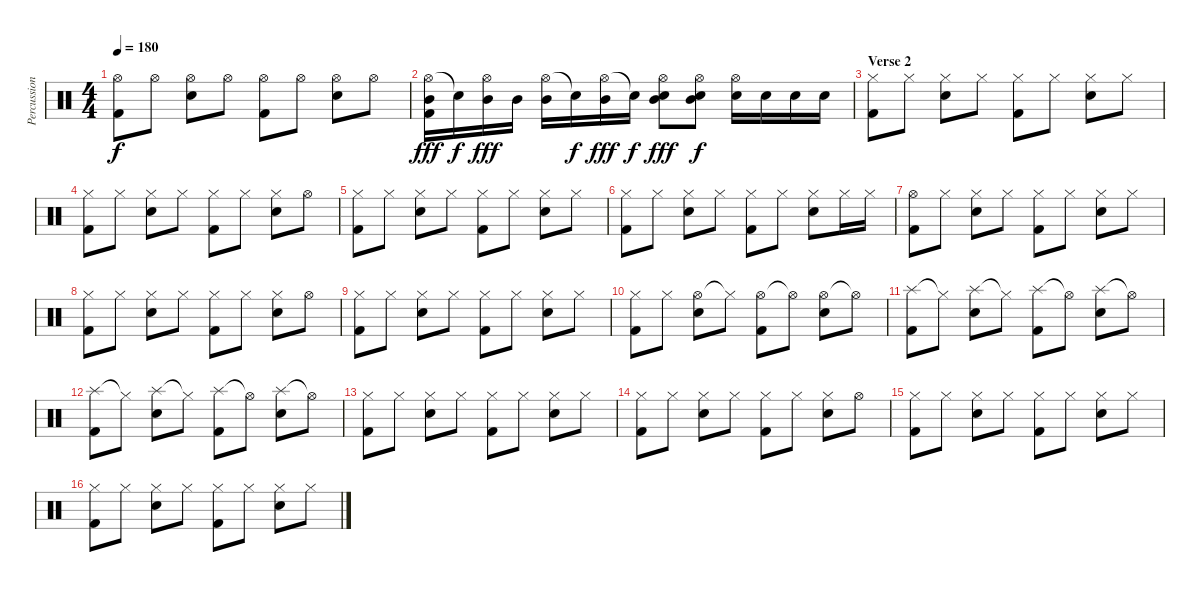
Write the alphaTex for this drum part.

\track ("Percussion" "Percussion") {instrument percussion}
\staff {score}
\articulation defaults
\ts (4 4)
\tempo 180
\clef neutral
\ks c
("Hi-Hat (open)" "Kick (hit) 2").8{dy f} "Hi-Hat (open)".8 ("Hi-Hat (open)" "Electric Snare (hit)").8 "Hi-Hat (open)".8 ("Hi-Hat (open)" "Kick (hit) 2").8 "Hi-Hat (open)".8 ("Hi-Hat (open)" "Electric Snare (hit)").8 "Hi-Hat (open)".8 |
("Hi-Hat (open)" "Mid Tom (hit)" "Kick (hit) 2").16{dy fff} "Electric Snare (hit)"{t}.16{dy f} ("Hi-Hat (open)" "Mid Tom (hit)").16{dy fff} "Mid Tom (hit)".16 ("Hi-Hat (open)" "Mid Tom (hit)").16 "Snare (hit)"{t}.16{dy f} ("Hi-Hat (open)" "Mid Tom (hit)").16{dy fff} "Snare (hit)"{t}.16{dy f} ("Hi-Hat (open)" "Electric Snare (hit)" "Mid Tom (hit)").8{dy fff} ("Hi-Hat (open)" "Electric Snare (hit)" "Mid Tom (hit)").8{dy f} ("Hi-Hat (open)" "Electric Snare (hit)").16 "Electric Snare (hit)".16 "Electric Snare (hit)".16 "Electric Snare (hit)".16 |
\section ("" "Verse 2")
("Hi-Hat (closed)" "Kick (hit) 2").8 "Hi-Hat (closed)".8 ("Hi-Hat (closed)" "Electric Snare (hit)").8 "Hi-Hat (closed)".8 ("Hi-Hat (closed)" "Kick (hit) 2").8 "Hi-Hat (closed)".8 ("Hi-Hat (closed)" "Electric Snare (hit)").8 "Hi-Hat (closed)".8 |
("Hi-Hat (closed)" "Kick (hit) 2").8 "Hi-Hat (closed)".8 ("Hi-Hat (closed)" "Electric Snare (hit)").8 "Hi-Hat (closed)".8 ("Hi-Hat (closed)" "Kick (hit) 2").8 "Hi-Hat (closed)".8 ("Hi-Hat (closed)" "Electric Snare (hit)").8 "Hi-Hat (open)".8 |
("Hi-Hat (closed)" "Kick (hit) 2").8 "Hi-Hat (closed)".8 ("Hi-Hat (closed)" "Electric Snare (hit)").8 "Hi-Hat (closed)".8 ("Hi-Hat (closed)" "Kick (hit) 2").8 "Hi-Hat (closed)".8 ("Hi-Hat (closed)" "Electric Snare (hit)").8 "Hi-Hat (closed)".8 |
("Hi-Hat (closed)" "Kick (hit) 2").8 "Hi-Hat (closed)".8 ("Hi-Hat (closed)" "Electric Snare (hit)").8 "Hi-Hat (closed)".8 ("Hi-Hat (closed)" "Kick (hit) 2").8 "Hi-Hat (closed)".8 ("Hi-Hat (closed)" "Electric Snare (hit)").8 "Hi-Hat (closed)".16 "Hi-Hat (closed)".16 |
("Hi-Hat (open)" "Kick (hit) 2").8 "Hi-Hat (closed)".8 ("Hi-Hat (closed)" "Electric Snare (hit)").8 "Hi-Hat (closed)".8 ("Hi-Hat (closed)" "Kick (hit) 2").8 "Hi-Hat (closed)".8 ("Hi-Hat (closed)" "Electric Snare (hit)").8 "Hi-Hat (closed)".8 |
("Hi-Hat (closed)" "Kick (hit) 2").8 "Hi-Hat (closed)".8 ("Hi-Hat (closed)" "Electric Snare (hit)").8 "Hi-Hat (closed)".8 ("Hi-Hat (closed)" "Kick (hit) 2").8 "Hi-Hat (closed)".8 ("Hi-Hat (closed)" "Electric Snare (hit)").8 "Hi-Hat (open)".8 |
("Hi-Hat (closed)" "Kick (hit) 2").8 "Hi-Hat (closed)".8 ("Hi-Hat (closed)" "Electric Snare (hit)").8 "Hi-Hat (closed)".8 ("Hi-Hat (closed)" "Kick (hit) 2").8 "Hi-Hat (closed)".8 ("Hi-Hat (closed)" "Electric Snare (hit)").8 "Hi-Hat (closed)".8 |
("Hi-Hat (closed)" "Kick (hit) 2").8 "Hi-Hat (closed)".8 ("Hi-Hat (open)" "Electric Snare (hit)").8 "Hi-Hat (closed)"{t}.8 ("Hi-Hat (open)" "Kick (hit) 2").8 "Hi-Hat (open)"{t}.8 ("Hi-Hat (open)" "Electric Snare (hit)").8 "Hi-Hat (open)"{t}.8 |
("Splash (hit)" "Kick (hit) 2").8 "Hi-Hat (closed)"{t}.8 ("Splash (hit)" "Electric Snare (hit)").8 "Hi-Hat (closed)"{t}.8 ("Splash (hit)" "Kick (hit) 2").8 "Hi-Hat (open)"{t}.8 ("Splash (hit)" "Electric Snare (hit)").8 "Hi-Hat (open)"{t}.8 |
("Splash (hit)" "Kick (hit) 2").8 "Hi-Hat (closed)"{t}.8 ("Splash (hit)" "Electric Snare (hit)").8 "Hi-Hat (closed)"{t}.8 ("Splash (hit)" "Kick (hit) 2").8 "Hi-Hat (open)"{t}.8 ("Splash (hit)" "Electric Snare (hit)").8 "Hi-Hat (open)"{t}.8 |
("Hi-Hat (closed)" "Kick (hit) 2").8 "Hi-Hat (closed)".8 ("Hi-Hat (closed)" "Electric Snare (hit)").8 "Hi-Hat (closed)".8 ("Hi-Hat (closed)" "Kick (hit) 2").8 "Hi-Hat (closed)".8 ("Hi-Hat (closed)" "Electric Snare (hit)").8 "Hi-Hat (closed)".8 |
("Hi-Hat (closed)" "Kick (hit) 2").8 "Hi-Hat (closed)".8 ("Hi-Hat (closed)" "Electric Snare (hit)").8 "Hi-Hat (closed)".8 ("Hi-Hat (closed)" "Kick (hit) 2").8 "Hi-Hat (closed)".8 ("Hi-Hat (closed)" "Electric Snare (hit)").8 "Hi-Hat (open)".8 |
("Hi-Hat (closed)" "Kick (hit) 2").8 "Hi-Hat (closed)".8 ("Hi-Hat (closed)" "Electric Snare (hit)").8 "Hi-Hat (closed)".8 ("Hi-Hat (closed)" "Kick (hit) 2").8 "Hi-Hat (closed)".8 ("Hi-Hat (closed)" "Electric Snare (hit)").8 "Hi-Hat (closed)".8 |
("Hi-Hat (closed)" "Kick (hit) 2").8 "Hi-Hat (closed)".8 ("Hi-Hat (closed)" "Electric Snare (hit)").8 "Hi-Hat (closed)".8 ("Hi-Hat (closed)" "Kick (hit) 2").8 "Hi-Hat (closed)".8 ("Hi-Hat (closed)" "Electric Snare (hit)").8 "Hi-Hat (closed)".8
